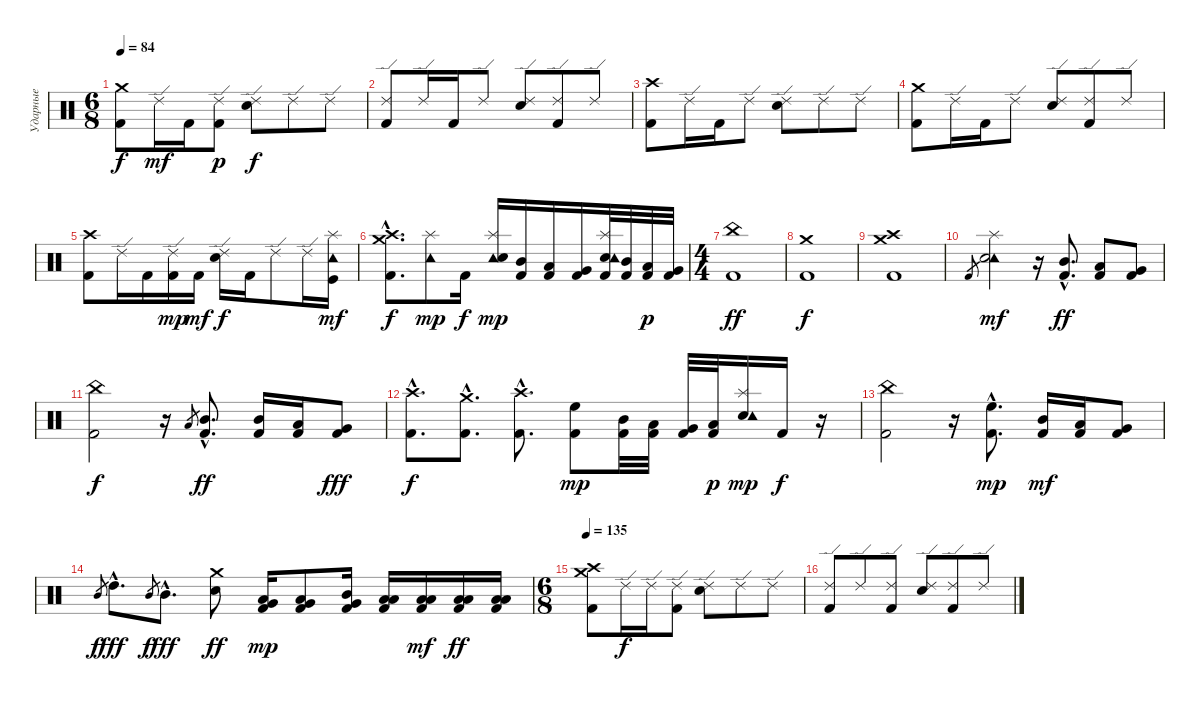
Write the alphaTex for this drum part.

\track ("Ударные" "Ударные") {instrument percussion}
\staff {score}
\articulation defaults
\ts (6 8)
\tempo 84
\clef neutral
\ks c
("Crash medium (hit)" "Kick (hit) 2").8{dy f} "Ride (edge) 2".16{dy mf} "Kick (hit) 2".16 ("Ride (edge) 2" "Kick (hit) 2").8{dy p} ("Ride (edge) 2" "Electric Snare (hit)").8{dy f} "Ride (edge) 2".8 "Ride (edge) 2".8 |
("Ride (edge) 2" "Kick (hit) 2").8 "Ride (edge) 2".16 "Kick (hit) 2".16 "Ride (edge) 2".8 ("Ride (edge) 2" "Electric Snare (hit)").8 ("Ride (edge) 2" "Kick (hit) 2").8 "Ride (edge) 2".8 |
("Crash high (hit)" "Kick (hit) 2").8 "Ride (edge) 2".16 "Kick (hit) 2".16 "Ride (edge) 2".8 ("Ride (edge) 2" "Electric Snare (hit)").8 "Ride (edge) 2".8 "Ride (edge) 2".8 |
("Crash medium (hit)" "Kick (hit) 2").8 "Ride (edge) 2".16 "Kick (hit) 2".16 "Ride (edge) 2".8 ("Ride (edge) 2" "Electric Snare (hit)").8 ("Ride (edge) 2" "Kick (hit) 2").8 "Ride (edge) 2".8 |
("Crash high (hit)" "Kick (hit) 2").8 "Ride (edge) 2".16 "Kick (hit) 2".16 ("Ride (edge) 2" "Kick (hit) 2").16{dy mp} "Kick (hit) 2".16{dy mf} ("Ride (edge) 2" "Electric Snare (hit)").16{dy f} "Kick (hit) 2".16 "Ride (edge) 2".8 "Ride (edge) 2".16 ("Splash (hit)" "Tambourine (hit)" "Kick (hit)").16{dy mf} |
("Crash medium (hit)"{hac} "Crash high (hit)"{hac} "Kick (hit) 2"{hac}).8{d dy f} ("Splash (hit)" "Tambourine (hit)").8{dy mp} "Kick (hit) 2".16{dy f} ("Splash (hit)" "Tambourine (hit)" "Electric Snare (hit)").16{dy mp} ("Mid Tom (hit)" "Kick (hit) 2").16 ("Low Tom (hit)" "Kick (hit) 2").16 ("Very Low Tom (hit)" "Kick (hit) 2").16 ("Electric Snare (hit)" "Kick (hit) 2" "Tambourine (hit)" "Splash (hit)").32 ("Mid Tom (hit)" "Kick (hit) 2").32 ("Low Tom (hit)" "Kick (hit) 2").32{dy p} ("Very Low Tom (hit)" "Kick (hit) 2").32 |
\ts (4 4)
\section ("" "")
("Kick (hit) 2" "China (hit)").1{dy ff} |
("Kick (hit) 2" "Crash medium (hit)").1{dy f} |
("Kick (hit) 2" "Crash medium (hit)" "Crash high (hit)").1 |
"Kick (hit) 2".8{gr} ("Tambourine (hit)" "Electric Snare (hit)" "Splash (hit)").2{dy mf} r.16 ("Kick (hit) 2"{hac} "Mid Tom (hit)"{hac}).8{d dy ff} ("Kick (hit) 2" "Low Tom (hit)").8 ("Kick (hit) 2" "Very Low Tom (hit)").8 |
("Kick (hit) 2" "China (hit)").2{dy f} r.16 "Low Tom (hit)".8{gr} ("Kick (hit) 2"{hac} "Mid Tom (hit)"{hac}).8{d dy ff} ("Kick (hit) 2" "Mid Tom (hit)").16 ("Kick (hit) 2" "Low Tom (hit)").16 ("Kick (hit) 2" "Very Low Tom (hit)").8{dy fff} |
("Kick (hit) 2"{hac} "Crash high (hit)"{hac}).8{d dy f} ("Kick (hit) 2"{hac} "Crash medium (hit)"{hac}).8{d} ("Kick (hit) 2"{hac} "Crash high (hit)"{hac}).8{d} ("High Floor Tom (hit)" "Kick (hit) 2").8{dy mp} ("Mid Tom (hit)" "Kick (hit) 2").32 ("Low Tom (hit)" "Kick (hit) 2").32 ("Very Low Tom (hit)" "Kick (hit) 2").32 ("Low Floor Tom (hit)" "Kick (hit) 2").32{dy p} ("Electric Snare (hit)" "Tambourine (hit)" "Splash (hit)").16{dy mp} "Kick (hit) 2".16{dy f} r.16 |
("Kick (hit) 2" "China (hit)").2 r.16 ("High Floor Tom (hit)"{hac} "Kick (hit) 2"{hac}).8{d dy mp} ("Mid Tom (hit)" "Kick (hit) 2").16{dy mf} ("Low Tom (hit)" "Kick (hit) 2").16 ("Very Low Tom (hit)" "Kick (hit) 2").8 |
"Mid Tom (hit)".8{gr dy f} "High Tom (hit)"{hac}.8{d dy fff} "Mid Tom (hit)".8{gr dy f} "Mid Tom (hit)"{hac}.8{d dy fff} ("Crash medium (hit)" "Snare (hit) 2").8{dy ff} ("Low Tom (hit)" "Very Low Tom (hit)" "Kick (hit) 2").16{dy mp} ("Low Tom (hit)" "Very Low Tom (hit)" "Kick (hit) 2").8 ("Mid Tom (hit)" "Very Low Tom (hit)" "Kick (hit) 2").16 ("Low Tom (hit)" "Low Floor Tom (hit)" "Kick (hit) 2").16 ("Low Tom (hit)" "Low Floor Tom (hit)" "Kick (hit) 2").16{dy mf} ("Low Tom (hit)" "Low Floor Tom (hit)" "Kick (hit) 2").16{dy ff} ("Low Tom (hit)" "Low Floor Tom (hit)" "Kick (hit) 2").16 |
\ts (6 8)
\section ("" "")
\tempo 135
("Crash high (hit)" "Crash medium (hit)" "Kick (hit) 2").8 "Ride (edge) 2".16{dy f} "Ride (edge) 2".16 ("Ride (edge) 2" "Kick (hit) 2").8 ("Ride (edge) 2" "Electric Snare (hit)").8 "Ride (edge) 2".8 "Ride (edge) 2".8 |
("Ride (edge) 2" "Kick (hit) 2").8 "Ride (edge) 2".8 ("Ride (edge) 2" "Kick (hit) 2").8 ("Ride (edge) 2" "Electric Snare (hit)").8 ("Ride (edge) 2" "Kick (hit) 2").8 "Ride (edge) 2".8
